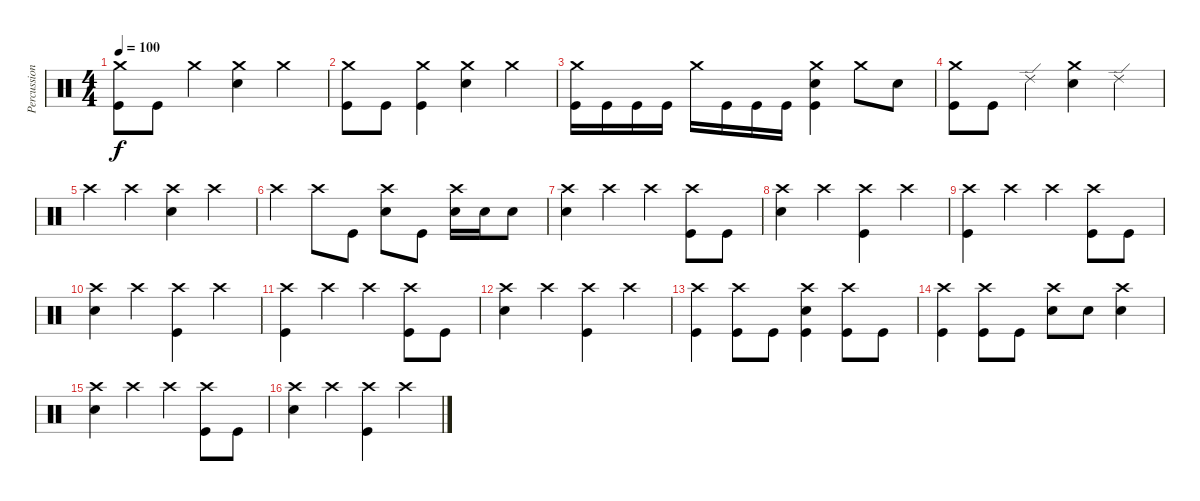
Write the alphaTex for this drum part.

\track ("Percussions" "Percussion") {instrument percussion}
\staff {score}
\articulation defaults
\ts (4 4)
\tempo 100
\clef neutral
\ks c
("Crash medium (hit)" "Kick (hit)").8{dy f} "Kick (hit)".8 "Crash medium (hit)".4 ("Crash medium (hit)" "Snare (hit) 2").4 "Crash medium (hit)".4 |
("Crash medium (hit)" "Kick (hit)").8 "Kick (hit)".8 ("Crash medium (hit)" "Kick (hit)").4 ("Crash medium (hit)" "Snare (hit) 2").4 "Crash medium (hit)".4 |
("Crash medium (hit)" "Kick (hit)").16 "Kick (hit)".16 "Kick (hit)".16 "Kick (hit)".16 "Crash medium (hit)".16 "Kick (hit)".16 "Kick (hit)".16 "Kick (hit)".16 ("Crash medium (hit)" "Snare (hit) 2" "Kick (hit)").4 "Crash medium (hit)".8 "Snare (hit) 2".8 |
("Crash medium (hit)" "Kick (hit)").8 "Kick (hit)".8 "Ride (edge) 2".4 ("Crash medium (hit)" "Snare (hit) 2").4 "Ride (edge) 2".4 |
"Crash high (hit)".4 "Crash high (hit)".4 ("Crash high (hit)" "Snare (hit) 2").4 "Crash high (hit)".4 |
"Crash high (hit)".4 "Crash high (hit)".8 "Kick (hit)".8 ("Crash high (hit)" "Snare (hit) 2").8 "Kick (hit)".8 ("Crash high (hit)" "Snare (hit) 2").16 "Snare (hit) 2".16 "Snare (hit) 2".8 |
("Crash high (hit)" "Snare (hit) 2").4 "Crash high (hit)".4 "Crash high (hit)".4 ("Crash high (hit)" "Kick (hit)").8 "Kick (hit)".8 |
("Crash high (hit)" "Snare (hit) 2").4 "Crash high (hit)".4 ("Crash high (hit)" "Kick (hit)").4 "Crash high (hit)".4 |
("Crash high (hit)" "Kick (hit)").4 "Crash high (hit)".4 "Crash high (hit)".4 ("Crash high (hit)" "Kick (hit)").8 "Kick (hit)".8 |
("Crash high (hit)" "Snare (hit) 2").4 "Crash high (hit)".4 ("Crash high (hit)" "Kick (hit)").4 "Crash high (hit)".4 |
("Crash high (hit)" "Kick (hit)").4 "Crash high (hit)".4 "Crash high (hit)".4 ("Crash high (hit)" "Kick (hit)").8 "Kick (hit)".8 |
("Crash high (hit)" "Snare (hit) 2").4 "Crash high (hit)".4 ("Crash high (hit)" "Kick (hit)").4 "Crash high (hit)".4 |
("Crash high (hit)" "Kick (hit)").4 ("Crash high (hit)" "Kick (hit)").8 "Kick (hit)".8 ("Crash high (hit)" "Snare (hit) 2" "Kick (hit)").4 ("Crash high (hit)" "Kick (hit)").8 "Kick (hit)".8 |
("Crash high (hit)" "Kick (hit)").4 ("Crash high (hit)" "Kick (hit)").8 "Kick (hit)".8 ("Crash high (hit)" "Snare (hit) 2").8 "Snare (hit) 2".8 ("Crash high (hit)" "Snare (hit) 2").4 |
("Crash high (hit)" "Snare (hit) 2").4 "Crash high (hit)".4 "Crash high (hit)".4 ("Crash high (hit)" "Kick (hit)").8 "Kick (hit)".8 |
("Crash high (hit)" "Snare (hit) 2").4 "Crash high (hit)".4 ("Crash high (hit)" "Kick (hit)").4 "Crash high (hit)".4
